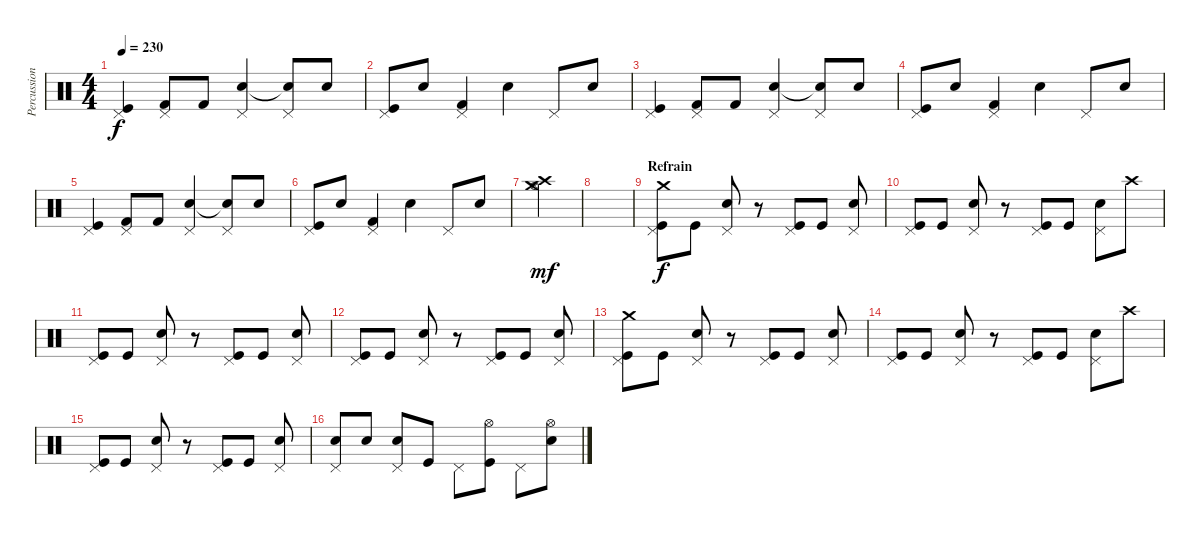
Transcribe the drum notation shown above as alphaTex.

\track ("Percussion" "Percussion") {instrument percussion}
\staff {score}
\articulation defaults
\ts (4 4)
\tempo 230
\clef neutral
\ks c
("Pedal Hi-Hat (hit)" "Kick (hit)").4{dy f} ("Pedal Hi-Hat (hit)" "Kick (hit) 2").8 "Kick (hit) 2".8 ("Pedal Hi-Hat (hit)" "Electric Snare (hit)").4 ("Pedal Hi-Hat (hit)" "Electric Snare (hit)"{t}).8 "Electric Snare (hit)".8 |
("Pedal Hi-Hat (hit)" "Kick (hit)").8 "Snare (hit) 2".8 ("Pedal Hi-Hat (hit)" "Kick (hit) 2").4 "Electric Snare (hit)".4 "Pedal Hi-Hat (hit)".8 "Snare (hit) 2".8 |
("Pedal Hi-Hat (hit)" "Kick (hit)").4 ("Pedal Hi-Hat (hit)" "Kick (hit) 2").8 "Kick (hit) 2".8 ("Pedal Hi-Hat (hit)" "Electric Snare (hit)").4 ("Pedal Hi-Hat (hit)" "Electric Snare (hit)"{t}).8 "Electric Snare (hit)".8 |
("Pedal Hi-Hat (hit)" "Kick (hit)").8 "Snare (hit) 2".8 ("Pedal Hi-Hat (hit)" "Kick (hit) 2").4 "Electric Snare (hit)".4 "Pedal Hi-Hat (hit)".8 "Snare (hit) 2".8 |
("Pedal Hi-Hat (hit)" "Kick (hit)").4 ("Pedal Hi-Hat (hit)" "Kick (hit) 2").8 "Kick (hit) 2".8 ("Pedal Hi-Hat (hit)" "Electric Snare (hit)").4 ("Pedal Hi-Hat (hit)" "Electric Snare (hit)"{t}).8 "Electric Snare (hit)".8 |
("Pedal Hi-Hat (hit)" "Kick (hit)").8 "Snare (hit) 2".8 ("Pedal Hi-Hat (hit)" "Kick (hit) 2").4 "Electric Snare (hit)".4 "Pedal Hi-Hat (hit)".8 "Snare (hit) 2".8 |
("Crash medium (hit)" "Hi-Hat (open)" "Crash high (hit)").4{dy mf} |
|
\section ("" "Refrain")
("Pedal Hi-Hat (hit)" "Crash medium (hit)" "Kick (hit)").8{dy f} "Kick (hit)".8 ("Pedal Hi-Hat (hit)" "Electric Snare (hit)").8 r.8 ("Pedal Hi-Hat (hit)" "Kick (hit)").8 "Kick (hit)".8 ("Pedal Hi-Hat (hit)" "Electric Snare (hit)").8 |
("Pedal Hi-Hat (hit)" "Kick (hit)").8 "Kick (hit)".8 ("Pedal Hi-Hat (hit)" "Electric Snare (hit)").8 r.8 ("Pedal Hi-Hat (hit)" "Kick (hit)").8 "Kick (hit)".8 ("Pedal Hi-Hat (hit)" "Electric Snare (hit)").8 "Crash high (hit)".8 |
("Pedal Hi-Hat (hit)" "Kick (hit)").8 "Kick (hit)".8 ("Pedal Hi-Hat (hit)" "Electric Snare (hit)").8 r.8 ("Pedal Hi-Hat (hit)" "Kick (hit)").8 "Kick (hit)".8 ("Pedal Hi-Hat (hit)" "Electric Snare (hit)").8 |
("Pedal Hi-Hat (hit)" "Kick (hit)").8 "Kick (hit)".8 ("Pedal Hi-Hat (hit)" "Electric Snare (hit)").8 r.8 ("Pedal Hi-Hat (hit)" "Kick (hit)").8 "Kick (hit)".8 ("Pedal Hi-Hat (hit)" "Electric Snare (hit)").8 |
("Pedal Hi-Hat (hit)" "Crash medium (hit)" "Kick (hit)").8 "Kick (hit)".8 ("Pedal Hi-Hat (hit)" "Electric Snare (hit)").8 r.8 ("Pedal Hi-Hat (hit)" "Kick (hit)").8 "Kick (hit)".8 ("Pedal Hi-Hat (hit)" "Electric Snare (hit)").8 |
("Pedal Hi-Hat (hit)" "Kick (hit)").8 "Kick (hit)".8 ("Pedal Hi-Hat (hit)" "Electric Snare (hit)").8 r.8 ("Pedal Hi-Hat (hit)" "Kick (hit)").8 "Kick (hit)".8 ("Pedal Hi-Hat (hit)" "Electric Snare (hit)").8 "Crash high (hit)".8 |
("Pedal Hi-Hat (hit)" "Kick (hit)").8 "Kick (hit)".8 ("Pedal Hi-Hat (hit)" "Electric Snare (hit)").8 r.8 ("Pedal Hi-Hat (hit)" "Kick (hit)").8 "Kick (hit)".8 ("Pedal Hi-Hat (hit)" "Electric Snare (hit)").8 |
("Pedal Hi-Hat (hit)" "Snare (hit) 2").8 "Snare (hit) 2".8 ("Pedal Hi-Hat (hit)" "Snare (hit) 2").8 "Kick (hit)".8 "Pedal Hi-Hat (hit)".8 ("Hi-Hat (open)" "Kick (hit)").8 "Pedal Hi-Hat (hit)".8 ("Hi-Hat (open)" "Electric Snare (hit)").8
